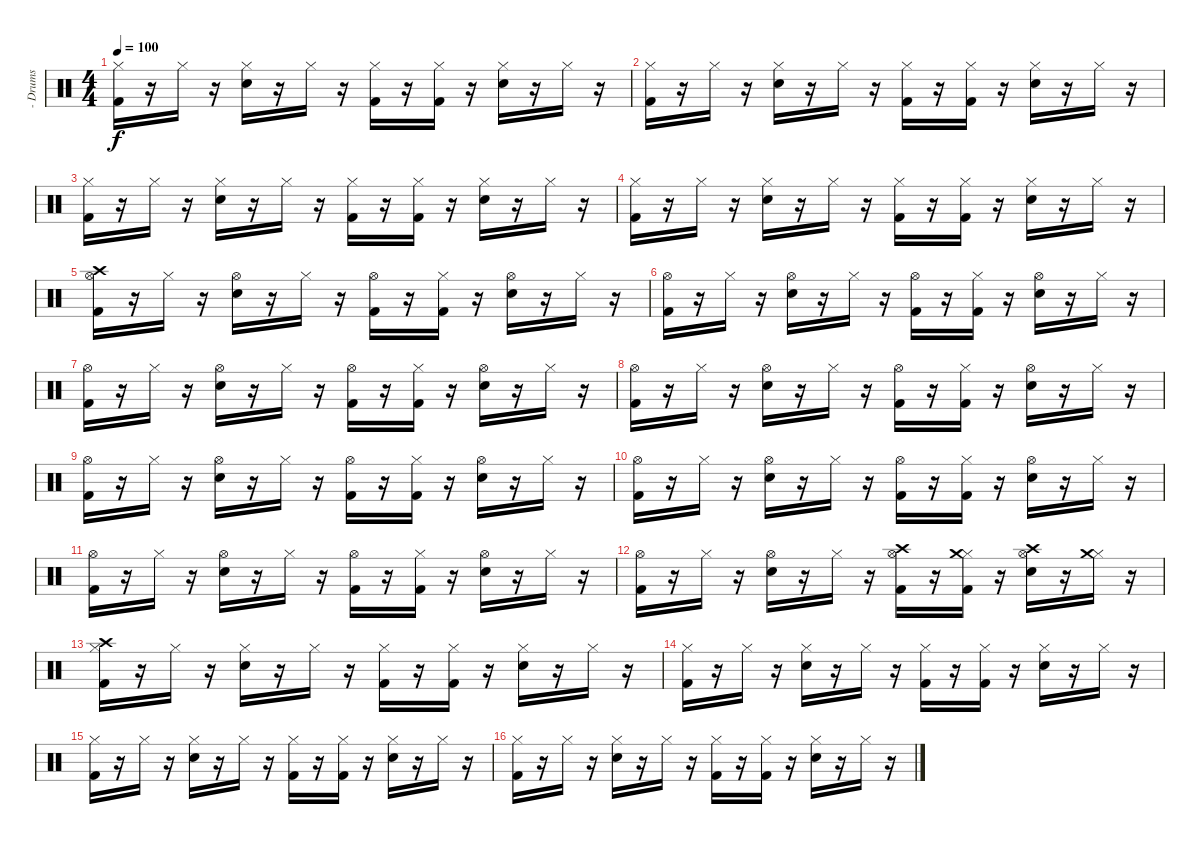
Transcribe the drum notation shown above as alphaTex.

\track ("- Drums" "- Drums") {instrument percussion}
\staff {score}
\articulation defaults
\ts (4 4)
\tempo 100
\clef neutral
\ks c
("Hi-Hat (closed)" "Kick (hit) 2").16{dy f} r.16 "Hi-Hat (closed)".16 r.16 ("Hi-Hat (closed)" "Electric Snare (hit)").16 r.16 "Hi-Hat (closed)".16 r.16 ("Hi-Hat (closed)" "Kick (hit) 2").16 r.16 ("Hi-Hat (closed)" "Kick (hit) 2").16 r.16 ("Hi-Hat (closed)" "Electric Snare (hit)").16 r.16 "Hi-Hat (closed)".16 r.16 |
("Hi-Hat (closed)" "Kick (hit) 2").16 r.16 "Hi-Hat (closed)".16 r.16 ("Hi-Hat (closed)" "Electric Snare (hit)").16 r.16 "Hi-Hat (closed)".16 r.16 ("Hi-Hat (closed)" "Kick (hit) 2").16 r.16 ("Hi-Hat (closed)" "Kick (hit) 2").16 r.16 ("Hi-Hat (closed)" "Electric Snare (hit)").16 r.16 "Hi-Hat (closed)".16 r.16 |
("Hi-Hat (closed)" "Kick (hit) 2").16 r.16 "Hi-Hat (closed)".16 r.16 ("Hi-Hat (closed)" "Electric Snare (hit)").16 r.16 "Hi-Hat (closed)".16 r.16 ("Hi-Hat (closed)" "Kick (hit) 2").16 r.16 ("Hi-Hat (closed)" "Kick (hit) 2").16 r.16 ("Hi-Hat (closed)" "Electric Snare (hit)").16 r.16 "Hi-Hat (closed)".16 r.16 |
("Hi-Hat (closed)" "Kick (hit) 2").16 r.16 "Hi-Hat (closed)".16 r.16 ("Hi-Hat (closed)" "Electric Snare (hit)").16 r.16 "Hi-Hat (closed)".16 r.16 ("Hi-Hat (closed)" "Kick (hit) 2").16 r.16 ("Hi-Hat (closed)" "Kick (hit) 2").16 r.16 ("Hi-Hat (closed)" "Electric Snare (hit)").16 r.16 "Hi-Hat (closed)".16 r.16 |
("Hi-Hat (open)" "Crash high (hit)" "Kick (hit) 2").16 r.16 "Hi-Hat (closed)".16 r.16 ("Hi-Hat (open)" "Electric Snare (hit)").16 r.16 "Hi-Hat (closed)".16 r.16 ("Hi-Hat (open)" "Kick (hit) 2").16 r.16 ("Hi-Hat (closed)" "Kick (hit) 2").16 r.16 ("Hi-Hat (open)" "Electric Snare (hit)").16 r.16 "Hi-Hat (closed)".16 r.16 |
("Hi-Hat (open)" "Kick (hit) 2").16 r.16 "Hi-Hat (closed)".16 r.16 ("Hi-Hat (open)" "Electric Snare (hit)").16 r.16 "Hi-Hat (closed)".16 r.16 ("Hi-Hat (open)" "Kick (hit) 2").16 r.16 ("Hi-Hat (closed)" "Kick (hit) 2").16 r.16 ("Hi-Hat (open)" "Electric Snare (hit)").16 r.16 "Hi-Hat (closed)".16 r.16 |
("Hi-Hat (open)" "Kick (hit) 2").16 r.16 "Hi-Hat (closed)".16 r.16 ("Hi-Hat (open)" "Electric Snare (hit)").16 r.16 "Hi-Hat (closed)".16 r.16 ("Hi-Hat (open)" "Kick (hit) 2").16 r.16 ("Hi-Hat (closed)" "Kick (hit) 2").16 r.16 ("Hi-Hat (open)" "Electric Snare (hit)").16 r.16 "Hi-Hat (closed)".16 r.16 |
("Hi-Hat (open)" "Kick (hit) 2").16 r.16 "Hi-Hat (closed)".16 r.16 ("Hi-Hat (open)" "Electric Snare (hit)").16 r.16 "Hi-Hat (closed)".16 r.16 ("Hi-Hat (open)" "Kick (hit) 2").16 r.16 ("Hi-Hat (closed)" "Kick (hit) 2").16 r.16 ("Hi-Hat (open)" "Electric Snare (hit)").16 r.16 "Hi-Hat (closed)".16 r.16 |
("Hi-Hat (open)" "Kick (hit) 2").16 r.16 "Hi-Hat (closed)".16 r.16 ("Hi-Hat (open)" "Electric Snare (hit)").16 r.16 "Hi-Hat (closed)".16 r.16 ("Hi-Hat (open)" "Kick (hit) 2").16 r.16 ("Hi-Hat (closed)" "Kick (hit) 2").16 r.16 ("Hi-Hat (open)" "Electric Snare (hit)").16 r.16 "Hi-Hat (closed)".16 r.16 |
("Hi-Hat (open)" "Kick (hit) 2").16 r.16 "Hi-Hat (closed)".16 r.16 ("Hi-Hat (open)" "Electric Snare (hit)").16 r.16 "Hi-Hat (closed)".16 r.16 ("Hi-Hat (open)" "Kick (hit) 2").16 r.16 ("Hi-Hat (closed)" "Kick (hit) 2").16 r.16 ("Hi-Hat (open)" "Electric Snare (hit)").16 r.16 "Hi-Hat (closed)".16 r.16 |
("Hi-Hat (open)" "Kick (hit) 2").16 r.16 "Hi-Hat (closed)".16 r.16 ("Hi-Hat (open)" "Electric Snare (hit)").16 r.16 "Hi-Hat (closed)".16 r.16 ("Hi-Hat (open)" "Kick (hit) 2").16 r.16 ("Hi-Hat (closed)" "Kick (hit) 2").16 r.16 ("Hi-Hat (open)" "Electric Snare (hit)").16 r.16 "Hi-Hat (closed)".16 r.16 |
("Hi-Hat (open)" "Kick (hit) 2").16 r.16 "Hi-Hat (closed)".16 r.16 ("Hi-Hat (open)" "Electric Snare (hit)").16 r.16 "Hi-Hat (closed)".16 r.16 ("Hi-Hat (open)" "Crash high (hit)" "Kick (hit) 2").16 r.16 ("Hi-Hat (closed)" "Crash medium (hit)" "Kick (hit) 2").16 r.16 ("Hi-Hat (open)" "Crash high (hit)" "Electric Snare (hit)").16 r.16 ("Hi-Hat (closed)" "Crash medium (hit)").16 r.16 |
("Hi-Hat (closed)" "Crash high (hit)" "Kick (hit) 2").16 r.16 "Hi-Hat (closed)".16 r.16 ("Hi-Hat (closed)" "Electric Snare (hit)").16 r.16 "Hi-Hat (closed)".16 r.16 ("Hi-Hat (closed)" "Kick (hit) 2").16 r.16 ("Hi-Hat (closed)" "Kick (hit) 2").16 r.16 ("Hi-Hat (closed)" "Electric Snare (hit)").16 r.16 "Hi-Hat (closed)".16 r.16 |
("Hi-Hat (closed)" "Kick (hit) 2").16 r.16 "Hi-Hat (closed)".16 r.16 ("Hi-Hat (closed)" "Electric Snare (hit)").16 r.16 "Hi-Hat (closed)".16 r.16 ("Hi-Hat (closed)" "Kick (hit) 2").16 r.16 ("Hi-Hat (closed)" "Kick (hit) 2").16 r.16 ("Hi-Hat (closed)" "Electric Snare (hit)").16 r.16 "Hi-Hat (closed)".16 r.16 |
("Hi-Hat (closed)" "Kick (hit) 2").16 r.16 "Hi-Hat (closed)".16 r.16 ("Hi-Hat (closed)" "Electric Snare (hit)").16 r.16 "Hi-Hat (closed)".16 r.16 ("Hi-Hat (closed)" "Kick (hit) 2").16 r.16 ("Hi-Hat (closed)" "Kick (hit) 2").16 r.16 ("Hi-Hat (closed)" "Electric Snare (hit)").16 r.16 "Hi-Hat (closed)".16 r.16 |
("Hi-Hat (closed)" "Kick (hit) 2").16 r.16 "Hi-Hat (closed)".16 r.16 ("Hi-Hat (closed)" "Electric Snare (hit)").16 r.16 "Hi-Hat (closed)".16 r.16 ("Hi-Hat (closed)" "Kick (hit) 2").16 r.16 ("Hi-Hat (closed)" "Kick (hit) 2").16 r.16 ("Hi-Hat (closed)" "Electric Snare (hit)").16 r.16 "Hi-Hat (closed)".16 r.16
